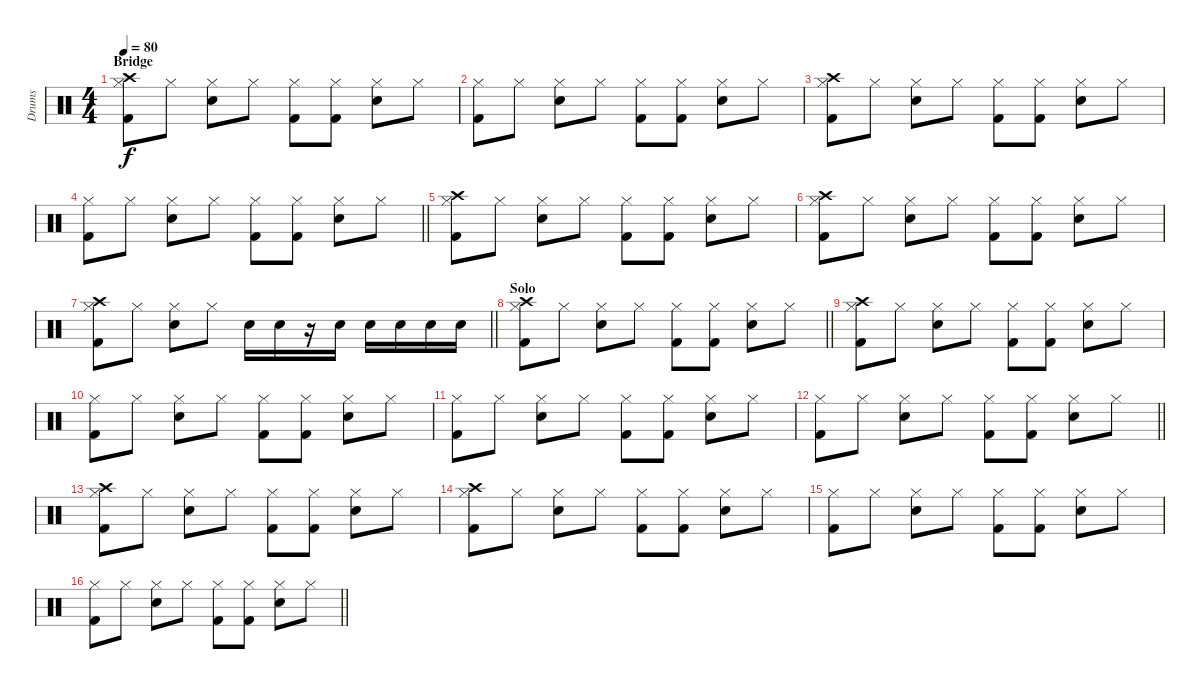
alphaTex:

\track ("Drums" "Drums") {instrument percussion}
\staff {score}
\articulation defaults
\ts (4 4)
\section ("" "Bridge")
\tempo 80
\clef neutral
\ks c
("Hi-Hat (closed)" "Crash high (hit)" "Kick (hit) 2").8{dy f} "Hi-Hat (closed)".8 ("Hi-Hat (closed)" "Snare (hit) 2").8 "Hi-Hat (closed)".8 ("Hi-Hat (closed)" "Kick (hit) 2").8 ("Hi-Hat (closed)" "Kick (hit) 2").8 ("Hi-Hat (closed)" "Snare (hit) 2").8 "Hi-Hat (closed)".8 |
("Hi-Hat (closed)" "Kick (hit) 2").8 "Hi-Hat (closed)".8 ("Hi-Hat (closed)" "Snare (hit) 2").8 "Hi-Hat (closed)".8 ("Hi-Hat (closed)" "Kick (hit) 2").8 ("Hi-Hat (closed)" "Kick (hit) 2").8 ("Hi-Hat (closed)" "Snare (hit) 2").8 "Hi-Hat (closed)".8 |
("Hi-Hat (closed)" "Crash high (hit)" "Kick (hit) 2").8 "Hi-Hat (closed)".8 ("Hi-Hat (closed)" "Snare (hit) 2").8 "Hi-Hat (closed)".8 ("Hi-Hat (closed)" "Kick (hit) 2").8 ("Hi-Hat (closed)" "Kick (hit) 2").8 ("Hi-Hat (closed)" "Snare (hit) 2").8 "Hi-Hat (closed)".8 |
\barLineRight lightlight
("Hi-Hat (closed)" "Kick (hit) 2").8 "Hi-Hat (closed)".8 ("Hi-Hat (closed)" "Snare (hit) 2").8 "Hi-Hat (closed)".8 ("Hi-Hat (closed)" "Kick (hit) 2").8 ("Hi-Hat (closed)" "Kick (hit) 2").8 ("Hi-Hat (closed)" "Snare (hit) 2").8 "Hi-Hat (closed)".8 |
("Hi-Hat (closed)" "Crash high (hit)" "Kick (hit) 2").8 "Hi-Hat (closed)".8 ("Hi-Hat (closed)" "Snare (hit) 2").8 "Hi-Hat (closed)".8 ("Hi-Hat (closed)" "Kick (hit) 2").8 ("Hi-Hat (closed)" "Kick (hit) 2").8 ("Hi-Hat (closed)" "Snare (hit) 2").8 "Hi-Hat (closed)".8 |
("Hi-Hat (closed)" "Crash high (hit)" "Kick (hit) 2").8 "Hi-Hat (closed)".8 ("Hi-Hat (closed)" "Snare (hit) 2").8 "Hi-Hat (closed)".8 ("Hi-Hat (closed)" "Kick (hit) 2").8 ("Hi-Hat (closed)" "Kick (hit) 2").8 ("Hi-Hat (closed)" "Snare (hit) 2").8 "Hi-Hat (closed)".8 |
\barLineRight lightlight
("Hi-Hat (closed)" "Crash high (hit)" "Kick (hit) 2").8 "Hi-Hat (closed)".8 ("Hi-Hat (closed)" "Snare (hit) 2").8 "Hi-Hat (closed)".8 "Snare (hit) 2".16 "Snare (hit) 2".16 r.16 "Snare (hit) 2".16 "Snare (hit) 2".16 "Snare (hit) 2".16 "Snare (hit) 2".16 "Snare (hit) 2".16 |
\section ("" "Solo")
\barLineRight lightlight
("Hi-Hat (closed)" "Crash high (hit)" "Kick (hit) 2").8 "Hi-Hat (closed)".8 ("Hi-Hat (closed)" "Snare (hit) 2").8 "Hi-Hat (closed)".8 ("Hi-Hat (closed)" "Kick (hit) 2").8 ("Hi-Hat (closed)" "Kick (hit) 2").8 ("Hi-Hat (closed)" "Snare (hit) 2").8 "Hi-Hat (closed)".8 |
("Hi-Hat (closed)" "Crash high (hit)" "Kick (hit) 2").8 "Hi-Hat (closed)".8 ("Hi-Hat (closed)" "Snare (hit) 2").8 "Hi-Hat (closed)".8 ("Hi-Hat (closed)" "Kick (hit) 2").8 ("Hi-Hat (closed)" "Kick (hit) 2").8 ("Hi-Hat (closed)" "Snare (hit) 2").8 "Hi-Hat (closed)".8 |
("Hi-Hat (closed)" "Kick (hit) 2").8 "Hi-Hat (closed)".8 ("Hi-Hat (closed)" "Snare (hit) 2").8 "Hi-Hat (closed)".8 ("Hi-Hat (closed)" "Kick (hit) 2").8 ("Hi-Hat (closed)" "Kick (hit) 2").8 ("Hi-Hat (closed)" "Snare (hit) 2").8 "Hi-Hat (closed)".8 |
("Hi-Hat (closed)" "Kick (hit) 2").8 "Hi-Hat (closed)".8 ("Hi-Hat (closed)" "Snare (hit) 2").8 "Hi-Hat (closed)".8 ("Hi-Hat (closed)" "Kick (hit) 2").8 ("Hi-Hat (closed)" "Kick (hit) 2").8 ("Hi-Hat (closed)" "Snare (hit) 2").8 "Hi-Hat (closed)".8 |
\barLineRight lightlight
("Hi-Hat (closed)" "Kick (hit) 2").8 "Hi-Hat (closed)".8 ("Hi-Hat (closed)" "Snare (hit) 2").8 "Hi-Hat (closed)".8 ("Hi-Hat (closed)" "Kick (hit) 2").8 ("Hi-Hat (closed)" "Kick (hit) 2").8 ("Hi-Hat (closed)" "Snare (hit) 2").8 "Hi-Hat (closed)".8 |
("Hi-Hat (closed)" "Crash high (hit)" "Kick (hit) 2").8 "Hi-Hat (closed)".8 ("Hi-Hat (closed)" "Snare (hit) 2").8 "Hi-Hat (closed)".8 ("Hi-Hat (closed)" "Kick (hit) 2").8 ("Hi-Hat (closed)" "Kick (hit) 2").8 ("Hi-Hat (closed)" "Snare (hit) 2").8 "Hi-Hat (closed)".8 |
("Hi-Hat (closed)" "Crash high (hit)" "Kick (hit) 2").8 "Hi-Hat (closed)".8 ("Hi-Hat (closed)" "Snare (hit) 2").8 "Hi-Hat (closed)".8 ("Hi-Hat (closed)" "Kick (hit) 2").8 ("Hi-Hat (closed)" "Kick (hit) 2").8 ("Hi-Hat (closed)" "Snare (hit) 2").8 "Hi-Hat (closed)".8 |
("Hi-Hat (closed)" "Kick (hit) 2").8 "Hi-Hat (closed)".8 ("Hi-Hat (closed)" "Snare (hit) 2").8 "Hi-Hat (closed)".8 ("Hi-Hat (closed)" "Kick (hit) 2").8 ("Hi-Hat (closed)" "Kick (hit) 2").8 ("Hi-Hat (closed)" "Snare (hit) 2").8 "Hi-Hat (closed)".8 |
\barLineRight lightlight
("Hi-Hat (closed)" "Kick (hit) 2").8 "Hi-Hat (closed)".8 ("Hi-Hat (closed)" "Snare (hit) 2").8 "Hi-Hat (closed)".8 ("Hi-Hat (closed)" "Kick (hit) 2").8 ("Hi-Hat (closed)" "Kick (hit) 2").8 ("Hi-Hat (closed)" "Snare (hit) 2").8 "Hi-Hat (closed)".8
